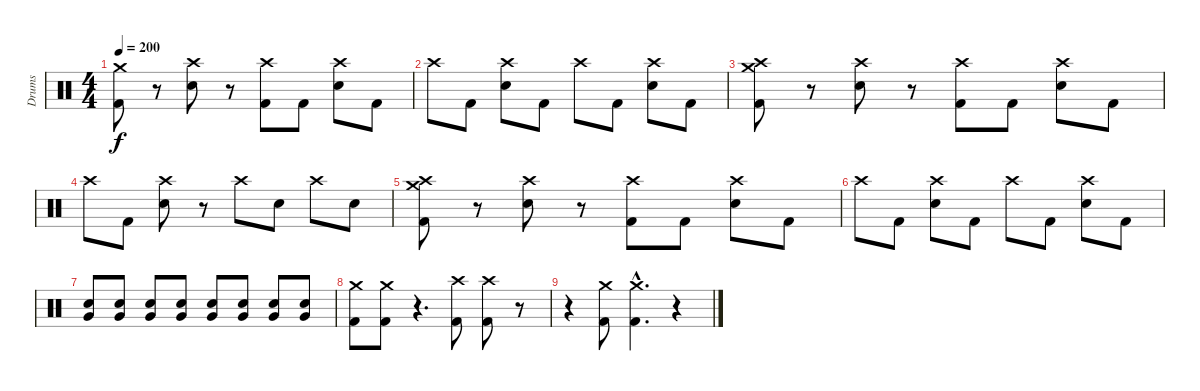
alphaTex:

\track ("Drums" "Drums") {instrument percussion}
\staff {score}
\articulation defaults
\ts (4 4)
\tempo 200
\clef neutral
\ks c
("Crash medium (hit)" "Kick (hit) 2").8{dy f} r.8 ("Crash high (hit)" "Electric Snare (hit)").8 r.8 ("Crash high (hit)" "Kick (hit) 2").8 "Kick (hit) 2".8 ("Crash high (hit)" "Electric Snare (hit)").8 "Kick (hit) 2".8 |
"Crash high (hit)".8 "Kick (hit) 2".8 ("Crash high (hit)" "Electric Snare (hit)").8 "Kick (hit) 2".8 "Crash high (hit)".8 "Kick (hit) 2".8 ("Crash high (hit)" "Electric Snare (hit)").8 "Kick (hit) 2".8 |
("Crash medium (hit)" "Crash high (hit)" "Kick (hit) 2").8 r.8 ("Crash high (hit)" "Electric Snare (hit)").8 r.8 ("Crash high (hit)" "Kick (hit) 2").8 "Kick (hit) 2".8 ("Crash high (hit)" "Electric Snare (hit)").8 "Kick (hit) 2".8 |
"Crash high (hit)".8 "Kick (hit) 2".8 ("Crash high (hit)" "Electric Snare (hit)").8 r.8 "Crash high (hit)".8 "Electric Snare (hit)".8 "Crash high (hit)".8 "Electric Snare (hit)".8 |
("Crash medium (hit)" "Crash high (hit)" "Kick (hit) 2").8 r.8 ("Crash high (hit)" "Electric Snare (hit)").8 r.8 ("Crash high (hit)" "Kick (hit) 2").8 "Kick (hit) 2".8 ("Crash high (hit)" "Electric Snare (hit)").8 "Kick (hit) 2".8 |
"Crash high (hit)".8 "Kick (hit) 2".8 ("Crash high (hit)" "Electric Snare (hit)").8 "Kick (hit) 2".8 "Crash high (hit)".8 "Kick (hit) 2".8 ("Crash high (hit)" "Electric Snare (hit)").8 "Kick (hit) 2".8 |
("Very Low Tom (hit)" "Electric Snare (hit)").8 ("Very Low Tom (hit)" "Electric Snare (hit)").8 ("Very Low Tom (hit)" "Electric Snare (hit)").8 ("Very Low Tom (hit)" "Electric Snare (hit)").8 ("Very Low Tom (hit)" "Electric Snare (hit)").8 ("Very Low Tom (hit)" "Electric Snare (hit)").8 ("Very Low Tom (hit)" "Electric Snare (hit)").8 ("Very Low Tom (hit)" "Electric Snare (hit)").8 |
("Crash medium (hit)" "Kick (hit) 2").8 ("Crash medium (hit)" "Kick (hit) 2").8 r.4{d} ("Crash high (hit)" "Kick (hit) 2").8 ("Crash high (hit)" "Kick (hit) 2").8 r.8 |
r.4 ("Crash medium (hit)" "Kick (hit) 2").8 ("Crash medium (hit)"{hac} "Kick (hit) 2"{hac}).4{d} r.4
